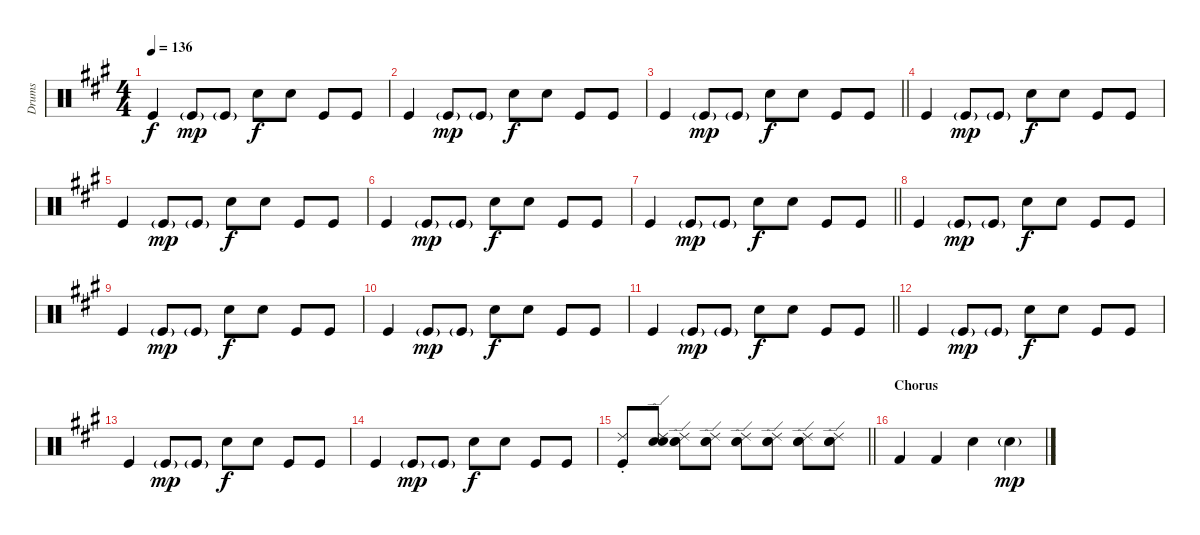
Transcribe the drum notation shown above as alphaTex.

\track ("Drums" "Drums") {instrument percussion}
\staff {score}
\articulation defaults
\ts (4 4)
\tempo 136
\clef neutral
\ks a "Kick (hit)".4{dy f} "Kick (hit)"{g}.8{dy mp} "Kick (hit)"{g}.8 "Electric Snare (hit)".8{dy f} "Electric Snare (hit)".8 "Kick (hit)".8 "Kick (hit)".8
|
"Kick (hit)".4 "Kick (hit)"{g}.8{dy mp} "Kick (hit)"{g}.8 "Electric Snare (hit)".8{dy f} "Electric Snare (hit)".8 "Kick (hit)".8 "Kick (hit)".8 |
\barLineRight lightlight "Kick (hit)".4 "Kick (hit)"{g}.8{dy mp} "Kick (hit)"{g}.8 "Electric Snare (hit)".8{dy f} "Electric Snare (hit)".8 "Kick (hit)".8 "Kick (hit)".8
|
"Kick (hit)".4 "Kick (hit)"{g}.8{dy mp} "Kick (hit)"{g}.8 "Electric Snare (hit)".8{dy f} "Electric Snare (hit)".8 "Kick (hit)".8 "Kick (hit)".8 |
"Kick (hit)".4 "Kick (hit)"{g}.8{dy mp} "Kick (hit)"{g}.8 "Electric Snare (hit)".8{dy f} "Electric Snare (hit)".8 "Kick (hit)".8 "Kick (hit)".8 |
"Kick (hit)".4 "Kick (hit)"{g}.8{dy mp} "Kick (hit)"{g}.8 "Electric Snare (hit)".8{dy f} "Electric Snare (hit)".8 "Kick (hit)".8 "Kick (hit)".8 |
\barLineRight lightlight "Kick (hit)".4 "Kick (hit)"{g}.8{dy mp} "Kick (hit)"{g}.8 "Electric Snare (hit)".8{dy f} "Electric Snare (hit)".8 "Kick (hit)".8 "Kick (hit)".8
|
"Kick (hit)".4 "Kick (hit)"{g}.8{dy mp} "Kick (hit)"{g}.8 "Electric Snare (hit)".8{dy f} "Electric Snare (hit)".8 "Kick (hit)".8 "Kick (hit)".8 |
"Kick (hit)".4 "Kick (hit)"{g}.8{dy mp} "Kick (hit)"{g}.8 "Electric Snare (hit)".8{dy f} "Electric Snare (hit)".8 "Kick (hit)".8 "Kick (hit)".8 |
"Kick (hit)".4 "Kick (hit)"{g}.8{dy mp} "Kick (hit)"{g}.8 "Electric Snare (hit)".8{dy f} "Electric Snare (hit)".8 "Kick (hit)".8 "Kick (hit)".8 |
\barLineRight lightlight "Kick (hit)".4 "Kick (hit)"{g}.8{dy mp} "Kick (hit)"{g}.8 "Electric Snare (hit)".8{dy f} "Electric Snare (hit)".8 "Kick (hit)".8 "Kick (hit)".8
|
"Kick (hit)".4 "Kick (hit)"{g}.8{dy mp} "Kick (hit)"{g}.8 "Electric Snare (hit)".8{dy f} "Electric Snare (hit)".8 "Kick (hit)".8 "Kick (hit)".8 |
"Kick (hit)".4 "Kick (hit)"{g}.8{dy mp} "Kick (hit)"{g}.8 "Electric Snare (hit)".8{dy f} "Electric Snare (hit)".8 "Kick (hit)".8 "Kick (hit)".8 |
"Kick (hit)".4 "Kick (hit)"{g}.8{dy mp} "Kick (hit)"{g}.8 "Electric Snare (hit)".8{dy f} "Electric Snare (hit)".8 "Kick (hit)".8 "Kick (hit)".8 |
\barLineRight lightlight
("Ride (choke) 2" "Kick (hit)").8 ("Ride (edge) 2" "Snare (hit) 2" "Electric Snare (hit)").8 ("Ride (edge) 2" "Snare (hit) 2" "Electric Snare (hit)").8 ("Ride (edge) 2" "Snare (hit) 2" "Electric Snare (hit)").8 ("Ride (edge) 2" "Snare (hit) 2" "Electric Snare (hit)").8 ("Ride (edge) 2" "Snare (hit) 2" "Electric Snare (hit)").8 ("Ride (edge) 2" "Snare (hit) 2" "Electric Snare (hit)").8 ("Ride (edge) 2" "Snare (hit) 2" "Electric Snare (hit)").8 |
\section ("" "Chorus")
"Kick (hit) 2".4 "Kick (hit) 2".4 "Snare (hit) 2".4 "Snare (hit) 2"{g}.4{dy mp}
